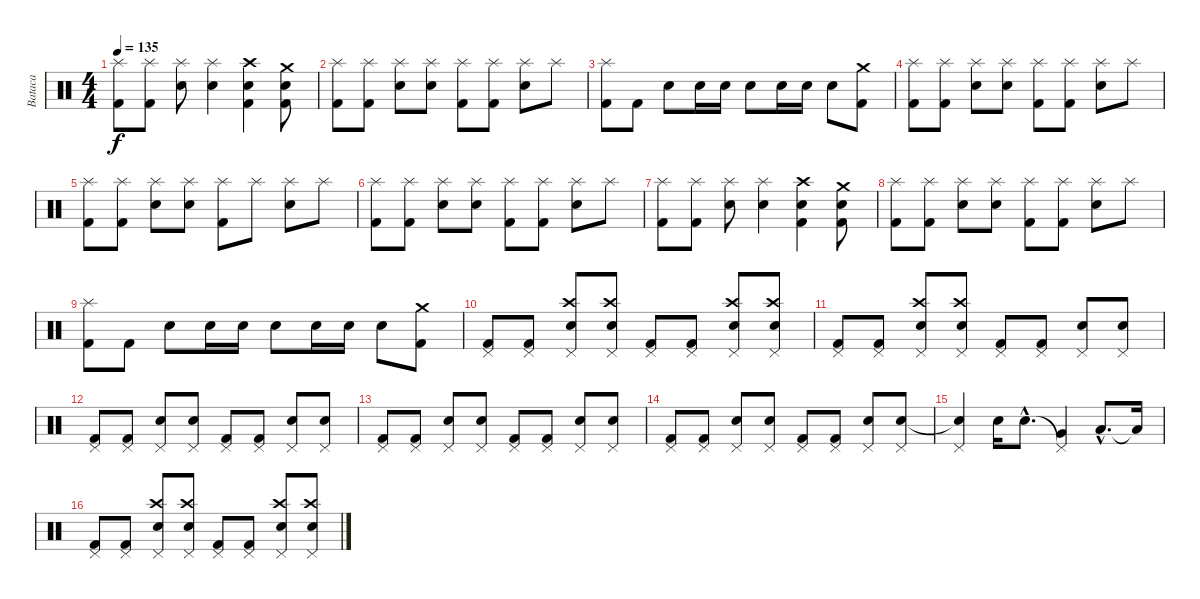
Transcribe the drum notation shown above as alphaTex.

\track ("Bataca" "Bataca") {instrument percussion}
\staff {score}
\articulation defaults
\ts (4 4)
\tempo 135
\clef neutral
\ks c
("Splash (hit)" "Kick (hit) 2").8{dy f} ("Splash (hit)" "Kick (hit) 2").8 ("Splash (hit)" "Electric Snare (hit)").8 ("Splash (hit)" "Electric Snare (hit)").4 ("Crash high (hit)" "Electric Snare (hit)" "Kick (hit) 2").4 ("Crash medium (hit)" "Electric Snare (hit)" "Kick (hit) 2").8 |
("Splash (hit)" "Kick (hit) 2").8 ("Splash (hit)" "Kick (hit) 2").8 ("Splash (hit)" "Electric Snare (hit)").8 ("Splash (hit)" "Electric Snare (hit)").8 ("Splash (hit)" "Kick (hit) 2").8 ("Splash (hit)" "Kick (hit) 2").8 ("Splash (hit)" "Electric Snare (hit)").8 "Splash (hit)".8 |
("Splash (hit)" "Kick (hit) 2").8 "Kick (hit) 2".8 "Electric Snare (hit)".8 "Electric Snare (hit)".16 "Electric Snare (hit)".16 "Electric Snare (hit)".8 "Electric Snare (hit)".16 "Electric Snare (hit)".16 "Electric Snare (hit)".8 ("Crash medium (hit)" "Kick (hit) 2").8 |
("Splash (hit)" "Kick (hit) 2").8 ("Splash (hit)" "Kick (hit) 2").8 ("Splash (hit)" "Electric Snare (hit)").8 ("Splash (hit)" "Electric Snare (hit)").8 ("Splash (hit)" "Kick (hit) 2").8 ("Splash (hit)" "Kick (hit) 2").8 ("Splash (hit)" "Electric Snare (hit)").8 "Splash (hit)".8 |
("Splash (hit)" "Kick (hit) 2").8 ("Splash (hit)" "Kick (hit) 2").8 ("Splash (hit)" "Electric Snare (hit)").8 ("Splash (hit)" "Electric Snare (hit)").8 ("Splash (hit)" "Kick (hit) 2").8 "Splash (hit)".8 ("Splash (hit)" "Electric Snare (hit)").8 "Splash (hit)".8 |
("Splash (hit)" "Kick (hit) 2").8 ("Splash (hit)" "Kick (hit) 2").8 ("Splash (hit)" "Electric Snare (hit)").8 ("Splash (hit)" "Electric Snare (hit)").8 ("Splash (hit)" "Kick (hit) 2").8 ("Splash (hit)" "Kick (hit) 2").8 ("Splash (hit)" "Electric Snare (hit)").8 "Splash (hit)".8 |
("Splash (hit)" "Kick (hit) 2").8 ("Splash (hit)" "Kick (hit) 2").8 ("Splash (hit)" "Electric Snare (hit)").8 ("Splash (hit)" "Electric Snare (hit)").4 ("Crash high (hit)" "Electric Snare (hit)" "Kick (hit) 2").4 ("Crash medium (hit)" "Electric Snare (hit)" "Kick (hit) 2").8 |
("Splash (hit)" "Kick (hit) 2").8 ("Splash (hit)" "Kick (hit) 2").8 ("Splash (hit)" "Electric Snare (hit)").8 ("Splash (hit)" "Electric Snare (hit)").8 ("Splash (hit)" "Kick (hit) 2").8 ("Splash (hit)" "Kick (hit) 2").8 ("Splash (hit)" "Electric Snare (hit)").8 "Splash (hit)".8 |
("Splash (hit)" "Kick (hit) 2").8 "Kick (hit) 2".8 "Electric Snare (hit)".8 "Electric Snare (hit)".16 "Electric Snare (hit)".16 "Electric Snare (hit)".8 "Electric Snare (hit)".16 "Electric Snare (hit)".16 "Electric Snare (hit)".8 ("Crash medium (hit)" "Kick (hit) 2").8 |
("Pedal Hi-Hat (hit)" "Kick (hit) 2").8 ("Pedal Hi-Hat (hit)" "Kick (hit) 2").8 ("Crash high (hit)" "Pedal Hi-Hat (hit)" "Electric Snare (hit)").8 ("Crash high (hit)" "Pedal Hi-Hat (hit)" "Electric Snare (hit)").8 ("Pedal Hi-Hat (hit)" "Kick (hit) 2").8 ("Pedal Hi-Hat (hit)" "Kick (hit) 2").8 ("Crash high (hit)" "Pedal Hi-Hat (hit)" "Electric Snare (hit)").8 ("Crash high (hit)" "Pedal Hi-Hat (hit)" "Electric Snare (hit)").8 |
("Pedal Hi-Hat (hit)" "Kick (hit) 2").8 ("Pedal Hi-Hat (hit)" "Kick (hit) 2").8 ("Crash high (hit)" "Pedal Hi-Hat (hit)" "Electric Snare (hit)").8 ("Crash high (hit)" "Pedal Hi-Hat (hit)" "Electric Snare (hit)").8 ("Pedal Hi-Hat (hit)" "Kick (hit) 2").8 ("Pedal Hi-Hat (hit)" "Kick (hit) 2").8 ("Pedal Hi-Hat (hit)" "Electric Snare (hit)").8 ("Pedal Hi-Hat (hit)" "Electric Snare (hit)").8 |
("Pedal Hi-Hat (hit)" "Kick (hit) 2").8 ("Pedal Hi-Hat (hit)" "Kick (hit) 2").8 ("Pedal Hi-Hat (hit)" "Electric Snare (hit)").8 ("Pedal Hi-Hat (hit)" "Electric Snare (hit)").8 ("Pedal Hi-Hat (hit)" "Kick (hit) 2").8 ("Pedal Hi-Hat (hit)" "Kick (hit) 2").8 ("Pedal Hi-Hat (hit)" "Electric Snare (hit)").8 ("Pedal Hi-Hat (hit)" "Electric Snare (hit)").8 |
("Pedal Hi-Hat (hit)" "Kick (hit) 2").8 ("Pedal Hi-Hat (hit)" "Kick (hit) 2").8 ("Pedal Hi-Hat (hit)" "Electric Snare (hit)").8 ("Pedal Hi-Hat (hit)" "Electric Snare (hit)").8 ("Pedal Hi-Hat (hit)" "Kick (hit) 2").8 ("Pedal Hi-Hat (hit)" "Kick (hit) 2").8 ("Pedal Hi-Hat (hit)" "Electric Snare (hit)").8 ("Pedal Hi-Hat (hit)" "Electric Snare (hit)").8 |
("Pedal Hi-Hat (hit)" "Kick (hit) 2").8 ("Pedal Hi-Hat (hit)" "Kick (hit) 2").8 ("Pedal Hi-Hat (hit)" "Electric Snare (hit)").8 ("Pedal Hi-Hat (hit)" "Electric Snare (hit)").8 ("Pedal Hi-Hat (hit)" "Kick (hit) 2").8 ("Pedal Hi-Hat (hit)" "Kick (hit) 2").8 ("Pedal Hi-Hat (hit)" "Electric Snare (hit)").8 ("Pedal Hi-Hat (hit)" "Electric Snare (hit)").8 |
("Pedal Hi-Hat (hit)" "Electric Snare (hit)"{t}).4 "Electric Snare (hit)".16 "Electric Snare (hit)"{hac}.8{d} ("Pedal Hi-Hat (hit)"{t} "Very Low Tom (hit)").4 "Low Floor Tom (hit)"{hac}.8{d} "Low Floor Tom (hit)"{t}.16 |
("Pedal Hi-Hat (hit)" "Kick (hit) 2").8 ("Pedal Hi-Hat (hit)" "Kick (hit) 2").8 ("Crash high (hit)" "Pedal Hi-Hat (hit)" "Electric Snare (hit)").8 ("Crash high (hit)" "Pedal Hi-Hat (hit)" "Electric Snare (hit)").8 ("Pedal Hi-Hat (hit)" "Kick (hit) 2").8 ("Pedal Hi-Hat (hit)" "Kick (hit) 2").8 ("Crash high (hit)" "Pedal Hi-Hat (hit)" "Electric Snare (hit)").8 ("Crash high (hit)" "Pedal Hi-Hat (hit)" "Electric Snare (hit)").8
